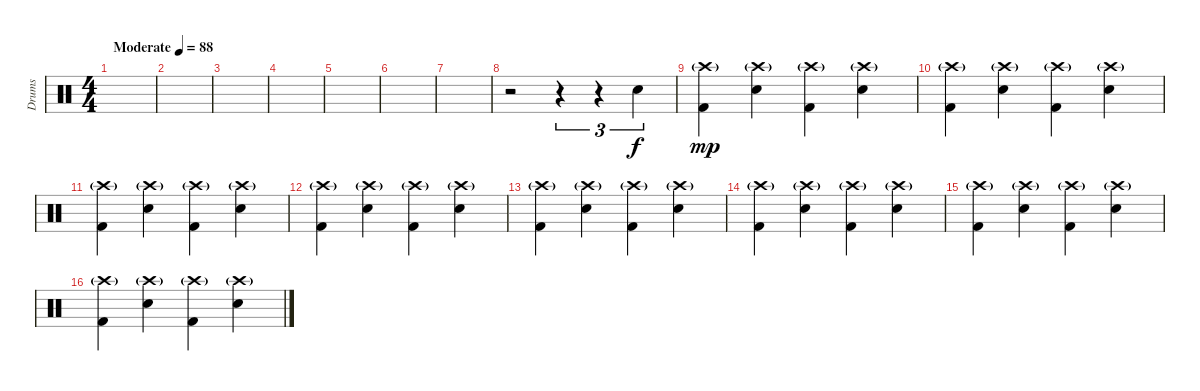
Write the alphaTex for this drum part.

\track ("Drums" "Drums") {instrument percussion}
\staff {score}
\articulation defaults
\ts (4 4)
\tempo (88 "Moderate")
\clef neutral
\ks c
|
|
|
|
|
|
|
r.2 r.4{tu (3 2)} r.4{tu (3 2)} "Snare (hit) 2".4{tu (3 2)} |
("Crash high (hit)"{g} "Kick (hit) 2").4{dy mp} ("Crash high (hit)"{g} "Snare (hit) 2").4 ("Crash high (hit)"{g} "Kick (hit) 2").4 ("Crash high (hit)"{g} "Snare (hit) 2").4 |
("Crash high (hit)"{g} "Kick (hit) 2").4 ("Crash high (hit)"{g} "Snare (hit) 2").4 ("Crash high (hit)"{g} "Kick (hit) 2").4 ("Crash high (hit)"{g} "Snare (hit) 2").4 |
("Crash high (hit)"{g} "Kick (hit) 2").4 ("Crash high (hit)"{g} "Snare (hit) 2").4 ("Crash high (hit)"{g} "Kick (hit) 2").4 ("Crash high (hit)"{g} "Snare (hit) 2").4 |
("Crash high (hit)"{g} "Kick (hit) 2").4 ("Crash high (hit)"{g} "Snare (hit) 2").4 ("Crash high (hit)"{g} "Kick (hit) 2").4 ("Crash high (hit)"{g} "Snare (hit) 2").4 |
("Crash high (hit)"{g} "Kick (hit) 2").4 ("Crash high (hit)"{g} "Snare (hit) 2").4 ("Crash high (hit)"{g} "Kick (hit) 2").4 ("Crash high (hit)"{g} "Snare (hit) 2").4 |
("Crash high (hit)"{g} "Kick (hit) 2").4 ("Crash high (hit)"{g} "Snare (hit) 2").4 ("Crash high (hit)"{g} "Kick (hit) 2").4 ("Crash high (hit)"{g} "Snare (hit) 2").4 |
("Crash high (hit)"{g} "Kick (hit) 2").4 ("Crash high (hit)"{g} "Snare (hit) 2").4 ("Crash high (hit)"{g} "Kick (hit) 2").4 ("Crash high (hit)"{g} "Snare (hit) 2").4 |
("Crash high (hit)"{g} "Kick (hit) 2").4 ("Crash high (hit)"{g} "Snare (hit) 2").4 ("Crash high (hit)"{g} "Kick (hit) 2").4 ("Crash high (hit)"{g} "Snare (hit) 2").4
